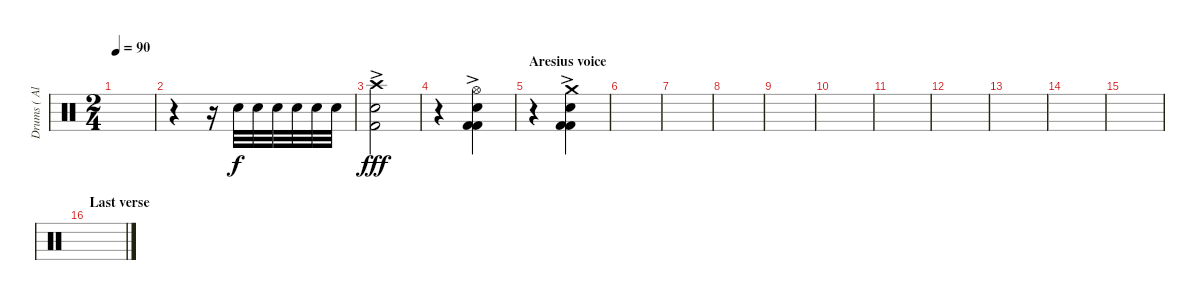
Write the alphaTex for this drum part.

\track ("Drums ( Alex Holzwarth)" "Drums ( Al") {instrument percussion}
\staff {score}
\articulation defaults
\ts (2 4)
\tempo 90
\clef neutral
\ks c
|
r.4{volume 10} r.16 "Electric Snare (hit)".32{dy f} "Electric Snare (hit)".32 "Electric Snare (hit)".32 "Electric Snare (hit)".32 "Electric Snare (hit)".32 "Electric Snare (hit)".32 |
("Crash high (hit)"{ac} "Snare (hit) 2"{ac} "Kick (hit) 2"{ac}).2{dy fff volume 16} |
r.4 ("Hi-Hat (open)"{ac} "Snare (hit) 2" "Kick (hit) 2"{ac} "Kick (hit) 2"{ac}).4 |
\section ("" "Aresius voice")
r.4 ("Crash medium (hit)"{ac} "Snare (hit) 2" "Kick (hit) 2"{ac} "Kick (hit) 2"{ac}).4 |
|
|
|
|
|
|
|
|
|
|
\section ("" "Last verse")
